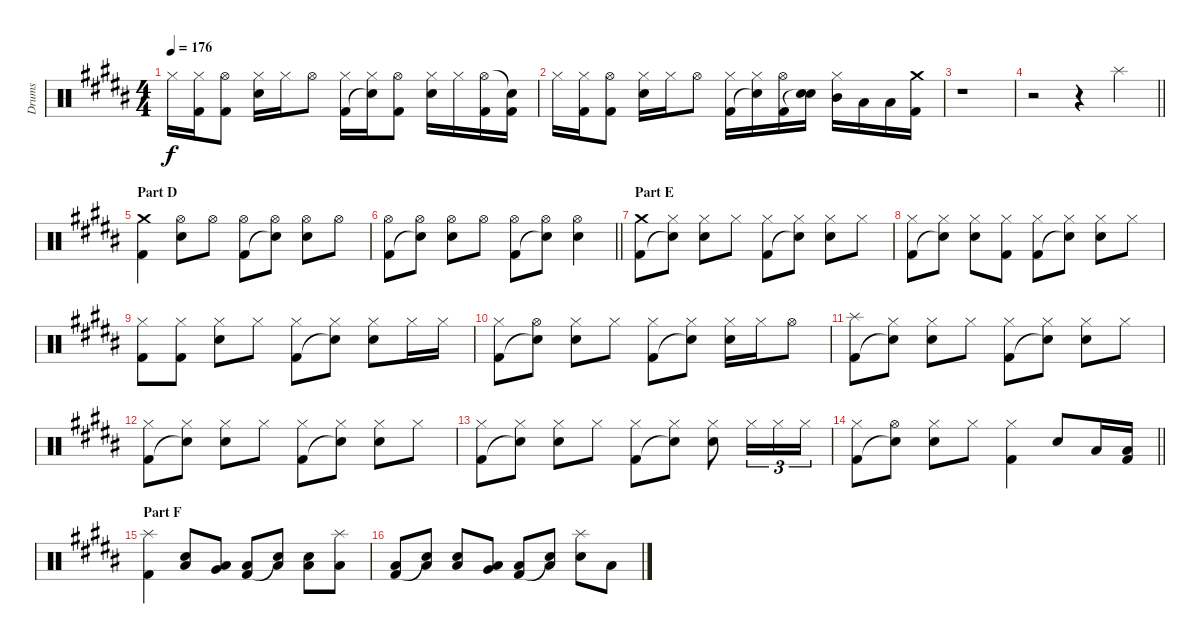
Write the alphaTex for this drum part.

\track ("Drums" "Drums") {instrument percussion}
\staff {score}
\articulation defaults
\ts (4 4)
\tempo 176
\clef neutral
\ks b "Hi-Hat (closed)".16{dy f}
("Hi-Hat (closed)" "Kick (hit) 2").16 ("Hi-Hat (open)" "Kick (hit) 2").8 ("Hi-Hat (closed)" "Electric Snare (hit)").16 "Hi-Hat (closed)".16 "Hi-Hat (open)".8 ("Hi-Hat (closed)" "Kick (hit) 2").16 ("Hi-Hat (closed)" "Snare (hit)"{t}).16 ("Hi-Hat (open)" "Kick (hit) 2").8 ("Hi-Hat (closed)" "Electric Snare (hit)").16 "Hi-Hat (closed)".16 ("Hi-Hat (open)" "Kick (hit) 2").16 ("Snare (hit)"{t} "Kick (hit) 2").16 |
"Hi-Hat (closed)".16 ("Hi-Hat (closed)" "Kick (hit) 2").16 ("Hi-Hat (open)" "Kick (hit) 2").8 ("Hi-Hat (closed)" "Electric Snare (hit)").16 "Hi-Hat (closed)".16 "Hi-Hat (open)".8 ("Hi-Hat (closed)" "Kick (hit) 2").16 ("Hi-Hat (closed)" "Snare (hit)"{t}).16 ("Hi-Hat (open)" "Kick (hit) 2").16 ("Electric Snare (hit)" "Snare (hit)"{t}).16 ("Hi-Hat (closed)" "Mid Tom (hit)").16 "Low Tom (hit)".16 "Low Tom (hit)".16 ("Crash medium (hit)" "Kick (hit) 2").16 |
r.1 |
\barLineRight lightlight
r.2 r.4 "Splash (hit)".4 |
\section ("" "Part D")
("Crash medium (hit)" "Kick (hit) 2").4 ("Hi-Hat (open)" "Electric Snare (hit)").8 "Hi-Hat (open)".8 ("Hi-Hat (open)" "Kick (hit) 2").8 ("Hi-Hat (open)" "Snare (hit)"{t}).8 ("Hi-Hat (open)" "Electric Snare (hit)").8 "Hi-Hat (open)".8 |
\barLineRight lightlight
("Hi-Hat (open)" "Kick (hit) 2").8 ("Hi-Hat (open)" "Snare (hit)"{t}).8 ("Hi-Hat (open)" "Electric Snare (hit)").8 "Hi-Hat (open)".8 ("Hi-Hat (open)" "Kick (hit) 2").8 ("Hi-Hat (open)" "Snare (hit)"{t}).8 ("Hi-Hat (open)" "Electric Snare (hit)").4 |
\section ("" "Part E")
("Crash medium (hit)" "Kick (hit) 2").8 ("Hi-Hat (closed)" "Snare (hit)"{t}).8 ("Hi-Hat (closed)" "Electric Snare (hit)").8 "Hi-Hat (closed)".8 ("Hi-Hat (closed)" "Kick (hit) 2").8 ("Hi-Hat (closed)" "Snare (hit)"{t}).8 ("Hi-Hat (closed)" "Electric Snare (hit)").8 "Hi-Hat (closed)".8 |
("Hi-Hat (closed)" "Kick (hit) 2").8 ("Hi-Hat (closed)" "Snare (hit)"{t}).8 ("Hi-Hat (closed)" "Electric Snare (hit)").8 ("Hi-Hat (closed)" "Kick (hit) 2").8 ("Hi-Hat (closed)" "Kick (hit) 2").8 ("Hi-Hat (closed)" "Snare (hit)"{t}).8 ("Hi-Hat (closed)" "Electric Snare (hit)").8 "Hi-Hat (closed)".8 |
("Hi-Hat (closed)" "Kick (hit) 2").8 ("Hi-Hat (closed)" "Kick (hit) 2").8 ("Hi-Hat (closed)" "Electric Snare (hit)").8 "Hi-Hat (closed)".8 ("Hi-Hat (closed)" "Kick (hit) 2").8 ("Hi-Hat (closed)" "Snare (hit)"{t}).8 ("Hi-Hat (closed)" "Electric Snare (hit)").8 "Hi-Hat (closed)".16 "Hi-Hat (closed)".16 |
("Hi-Hat (closed)" "Kick (hit) 2").8 ("Hi-Hat (open)" "Snare (hit)"{t}).8 ("Hi-Hat (closed)" "Electric Snare (hit)").8 "Hi-Hat (closed)".8 ("Hi-Hat (closed)" "Kick (hit) 2").8 ("Hi-Hat (closed)" "Snare (hit)"{t}).8 ("Hi-Hat (closed)" "Electric Snare (hit)").16 "Hi-Hat (closed)".16 "Hi-Hat (open)".8 |
("Splash (hit)" "Kick (hit) 2").8 ("Hi-Hat (closed)" "Snare (hit)"{t}).8 ("Hi-Hat (closed)" "Electric Snare (hit)").8 "Hi-Hat (closed)".8 ("Hi-Hat (closed)" "Kick (hit) 2").8 ("Hi-Hat (closed)" "Snare (hit)"{t}).8 ("Hi-Hat (closed)" "Electric Snare (hit)").8 "Hi-Hat (closed)".8 |
("Hi-Hat (closed)" "Kick (hit) 2").8 ("Hi-Hat (closed)" "Snare (hit)"{t}).8 ("Hi-Hat (closed)" "Electric Snare (hit)").8 "Hi-Hat (closed)".8 ("Hi-Hat (closed)" "Kick (hit) 2").8 ("Hi-Hat (closed)" "Snare (hit)"{t}).8 ("Hi-Hat (closed)" "Electric Snare (hit)").8 "Hi-Hat (closed)".8 |
("Hi-Hat (closed)" "Kick (hit) 2").8 ("Hi-Hat (closed)" "Snare (hit)"{t}).8 ("Hi-Hat (closed)" "Electric Snare (hit)").8 "Hi-Hat (closed)".8 ("Hi-Hat (closed)" "Kick (hit) 2").8 ("Hi-Hat (closed)" "Snare (hit)"{t}).8 ("Hi-Hat (closed)" "Electric Snare (hit)").8 "Hi-Hat (closed)".16{tu (3 2)} "Hi-Hat (closed)".16{tu (3 2)} "Hi-Hat (closed)".16{tu (3 2)} |
\barLineRight lightlight
("Hi-Hat (closed)" "Kick (hit) 2").8 ("Hi-Hat (open)" "Snare (hit)"{t}).8 ("Hi-Hat (closed)" "Electric Snare (hit)").8 "Hi-Hat (closed)".8 ("Hi-Hat (closed)" "Kick (hit) 2").4 "Electric Snare (hit)".8 "Low Floor Tom (hit)".16 ("Low Floor Tom (hit)" "Kick (hit) 2").16 |
\section ("" "Part F")
("Splash (hit)" "Kick (hit) 2").4 ("Electric Snare (hit)" "Low Floor Tom (hit)").8 ("Very Low Tom (hit)" "Low Floor Tom (hit)").8 ("Low Floor Tom (hit)" "Kick (hit) 2").8 ("Low Floor Tom (hit)" "Snare (hit)"{t}).8 ("Electric Snare (hit)" "Low Floor Tom (hit)").8 ("Splash (hit)" "Low Floor Tom (hit)").8 |
("Low Floor Tom (hit)" "Kick (hit) 2").8 ("Low Floor Tom (hit)" "Snare (hit)"{t}).8 ("Electric Snare (hit)" "Low Floor Tom (hit)").8 ("Very Low Tom (hit)" "Low Floor Tom (hit)").8 ("Low Floor Tom (hit)" "Kick (hit) 2").8 ("Low Floor Tom (hit)" "Snare (hit)"{t}).8 ("Splash (hit)" "Electric Snare (hit)").8 "Low Floor Tom (hit)".8
